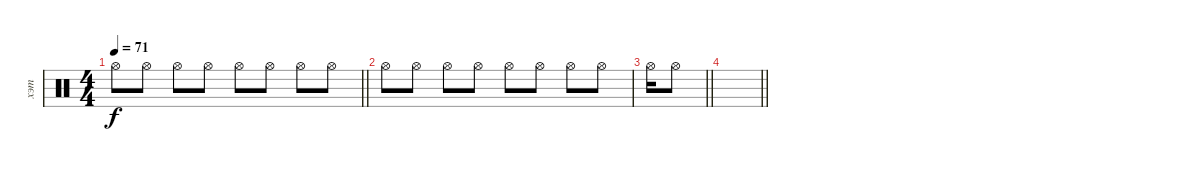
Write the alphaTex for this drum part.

\track ("хэт" "хэт") {instrument percussion}
\staff {score}
\articulation defaults
\ts (4 4)
\tempo 71
\clef neutral
\barLineRight lightlight
\ks c "Hi-Hat (open)".8{dy f} "Hi-Hat (open)".8 "Hi-Hat (open)".8 "Hi-Hat (open)".8 "Hi-Hat (open)".8 "Hi-Hat (open)".8 "Hi-Hat (open)".8 "Hi-Hat (open)".8
|
"Hi-Hat (open)".8 "Hi-Hat (open)".8 "Hi-Hat (open)".8 "Hi-Hat (open)".8 "Hi-Hat (open)".8 "Hi-Hat (open)".8 "Hi-Hat (open)".8 "Hi-Hat (open)".8 |
\barLineRight lightlight "Hi-Hat (open)".16 "Hi-Hat (open)".8
|
\barLineRight lightlight
